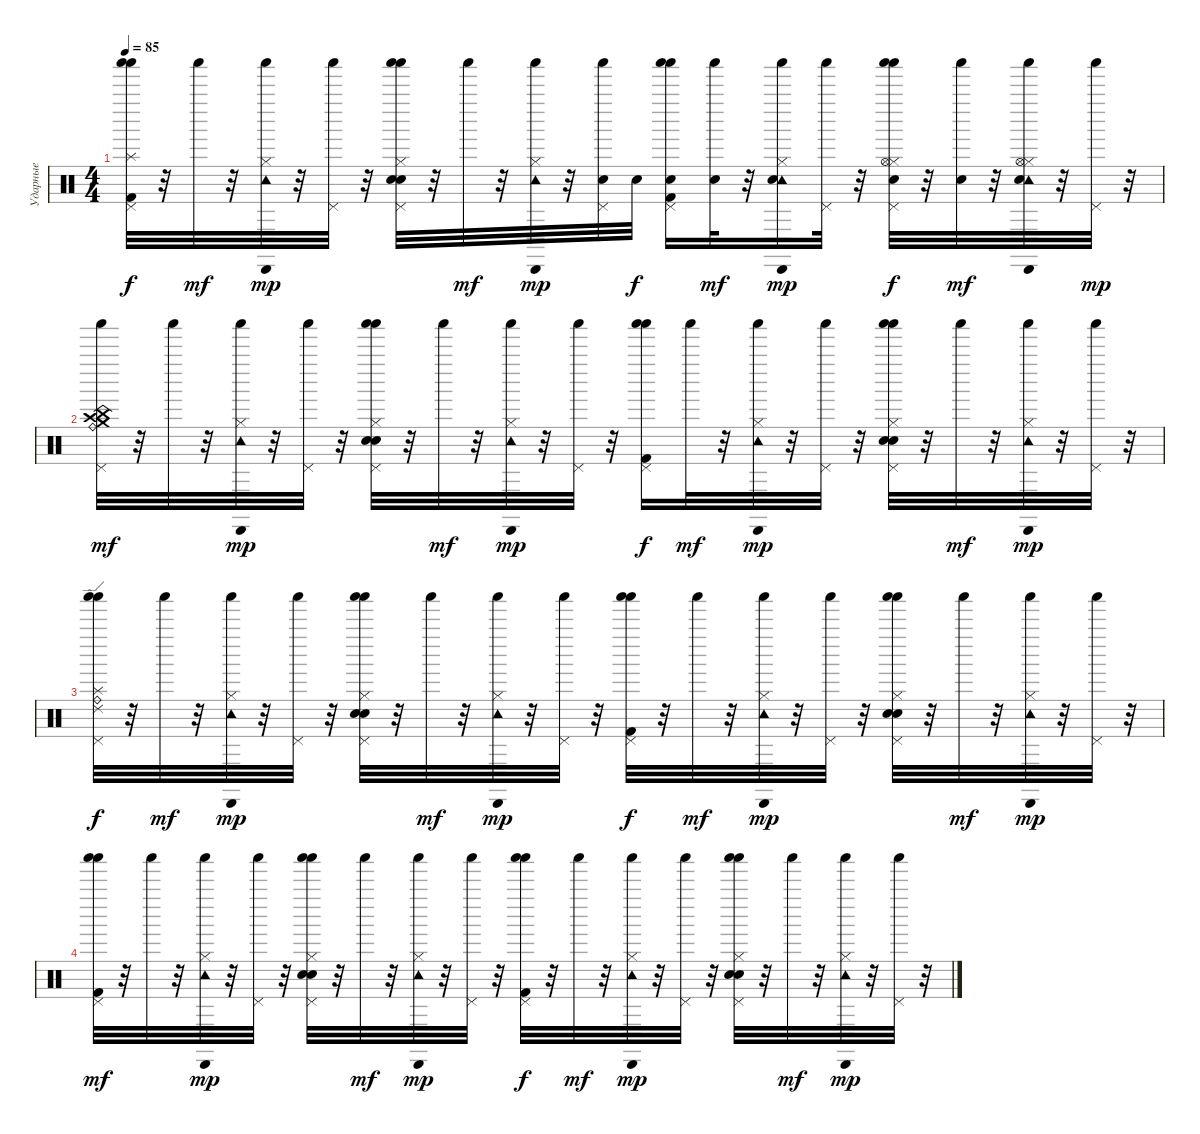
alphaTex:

\track ("Ударные" "Ударные") {instrument percussion}
\staff {score}
\articulation defaults
\ts (4 4)
\tempo 85
\clef neutral
\ks c
("Splash (hit)" "Pedal Hi-Hat (hit)" "Shaker (hit)" "Shaker (hit)" "Kick (hit) 2").32{dy f} r.32 "Shaker (hit)".32{dy mf} r.32 ("Hi-Hat (closed)" "Cabasa (hit)" "Shaker (hit)" "Tambourine (hit)").32{dy mp} r.32 ("Pedal Hi-Hat (hit)" "Shaker (hit)").32 r.32 ("Hi-Hat (closed)" "Pedal Hi-Hat (hit)" "Shaker (hit)" "Shaker (hit)" "Snare (hit) 2" "Electric Snare (hit)").32 r.32 "Shaker (hit)".32{dy mf} r.32 ("Hi-Hat (closed)" "Cabasa (hit)" "Shaker (hit)" "Tambourine (hit)").32{dy mp} r.32 ("Pedal Hi-Hat (hit)" "Shaker (hit)" "Snare (hit) 2").32 "Snare (hit) 2".32{dy f} ("Pedal Hi-Hat (hit)" "Shaker (hit)" "Shaker (hit)" "Kick (hit) 2" "Snare (hit) 2").16 ("Shaker (hit)" "Snare (hit) 2").32{dy mf} r.32 ("Hi-Hat (closed)" "Cabasa (hit)" "Shaker (hit)" "Tambourine (hit)" "Electric Snare (hit)").16{dy mp} ("Pedal Hi-Hat (hit)" "Shaker (hit)").32 r.32 ("Hi-Hat (closed)" "Hi-Hat (open)" "Pedal Hi-Hat (hit)" "Shaker (hit)" "Shaker (hit)" "Snare (hit) 2").32{dy f} r.32 ("Shaker (hit)" "Snare (hit) 2").32{dy mf} r.32 ("Hi-Hat (closed)" "Hi-Hat (open)" "Cabasa (hit)" "Shaker (hit)" "Tambourine (hit)" "Snare (hit) 2").32 r.32 ("Pedal Hi-Hat (hit)" "Shaker (hit)").32{dy mp} r.32 |
("Ride (bell)" "Crash high (hit)" "China (hit)" "Crash medium (hit)" "Pedal Hi-Hat (hit)" "Shaker (hit)").32{dy mf} r.32 "Shaker (hit)".32 r.32 ("Hi-Hat (closed)" "Cabasa (hit)" "Shaker (hit)" "Tambourine (hit)").32{dy mp} r.32 ("Pedal Hi-Hat (hit)" "Shaker (hit)").32 r.32 ("Hi-Hat (closed)" "Pedal Hi-Hat (hit)" "Shaker (hit)" "Shaker (hit)" "Snare (hit) 2" "Electric Snare (hit)").32 r.32 "Shaker (hit)".32{dy mf} r.32 ("Hi-Hat (closed)" "Cabasa (hit)" "Shaker (hit)" "Tambourine (hit)").32{dy mp} r.32 ("Pedal Hi-Hat (hit)" "Shaker (hit)").32 r.32 ("Pedal Hi-Hat (hit)" "Shaker (hit)" "Shaker (hit)" "Kick (hit) 2").16{dy f} "Shaker (hit)".32{dy mf} r.32 ("Hi-Hat (closed)" "Cabasa (hit)" "Shaker (hit)" "Tambourine (hit)").32{dy mp} r.32 ("Pedal Hi-Hat (hit)" "Shaker (hit)").32 r.32 ("Hi-Hat (closed)" "Pedal Hi-Hat (hit)" "Shaker (hit)" "Shaker (hit)" "Snare (hit) 2" "Electric Snare (hit)").32 r.32 "Shaker (hit)".32{dy mf} r.32 ("Hi-Hat (closed)" "Cabasa (hit)" "Shaker (hit)" "Tambourine (hit)").32{dy mp} r.32 ("Pedal Hi-Hat (hit)" "Shaker (hit)").32 r.32 |
("Ride (bell)" "Splash (hit)" "Ride (edge) 2" "Pedal Hi-Hat (hit)" "Shaker (hit)" "Shaker (hit)").32{dy f} r.32 "Shaker (hit)".32{dy mf} r.32 ("Hi-Hat (closed)" "Cabasa (hit)" "Shaker (hit)" "Tambourine (hit)").32{dy mp} r.32 ("Pedal Hi-Hat (hit)" "Shaker (hit)").32 r.32 ("Hi-Hat (closed)" "Pedal Hi-Hat (hit)" "Shaker (hit)" "Shaker (hit)" "Snare (hit) 2" "Electric Snare (hit)").32 r.32 "Shaker (hit)".32{dy mf} r.32 ("Hi-Hat (closed)" "Cabasa (hit)" "Shaker (hit)" "Tambourine (hit)").32{dy mp} r.32 ("Pedal Hi-Hat (hit)" "Shaker (hit)").32 r.32 ("Pedal Hi-Hat (hit)" "Shaker (hit)" "Shaker (hit)" "Kick (hit) 2").32{dy f} r.32 "Shaker (hit)".32{dy mf} r.32 ("Hi-Hat (closed)" "Cabasa (hit)" "Shaker (hit)" "Tambourine (hit)").32{dy mp} r.32 ("Pedal Hi-Hat (hit)" "Shaker (hit)").32 r.32 ("Hi-Hat (closed)" "Pedal Hi-Hat (hit)" "Shaker (hit)" "Shaker (hit)" "Snare (hit) 2" "Electric Snare (hit)").32 r.32 "Shaker (hit)".32{dy mf} r.32 ("Hi-Hat (closed)" "Cabasa (hit)" "Shaker (hit)" "Tambourine (hit)").32{dy mp} r.32 ("Pedal Hi-Hat (hit)" "Shaker (hit)").32 r.32 |
("Pedal Hi-Hat (hit)" "Shaker (hit)" "Shaker (hit)" "Kick (hit) 2").32{dy mf} r.32 "Shaker (hit)".32 r.32 ("Hi-Hat (closed)" "Cabasa (hit)" "Shaker (hit)" "Tambourine (hit)").32{dy mp} r.32 ("Pedal Hi-Hat (hit)" "Shaker (hit)").32 r.32 ("Hi-Hat (closed)" "Pedal Hi-Hat (hit)" "Shaker (hit)" "Shaker (hit)" "Snare (hit) 2" "Electric Snare (hit)").32 r.32 "Shaker (hit)".32{dy mf} r.32 ("Hi-Hat (closed)" "Cabasa (hit)" "Shaker (hit)" "Tambourine (hit)").32{dy mp} r.32 ("Pedal Hi-Hat (hit)" "Shaker (hit)").32 r.32 ("Pedal Hi-Hat (hit)" "Shaker (hit)" "Shaker (hit)" "Kick (hit) 2").32{dy f} r.32 "Shaker (hit)".32{dy mf} r.32 ("Hi-Hat (closed)" "Cabasa (hit)" "Shaker (hit)" "Tambourine (hit)").32{dy mp} r.32 ("Pedal Hi-Hat (hit)" "Shaker (hit)").32 r.32 ("Hi-Hat (closed)" "Pedal Hi-Hat (hit)" "Shaker (hit)" "Shaker (hit)" "Snare (hit) 2" "Electric Snare (hit)").32 r.32 "Shaker (hit)".32{dy mf} r.32 ("Hi-Hat (closed)" "Cabasa (hit)" "Shaker (hit)" "Tambourine (hit)").32{dy mp} r.32 ("Pedal Hi-Hat (hit)" "Shaker (hit)").32 r.32
